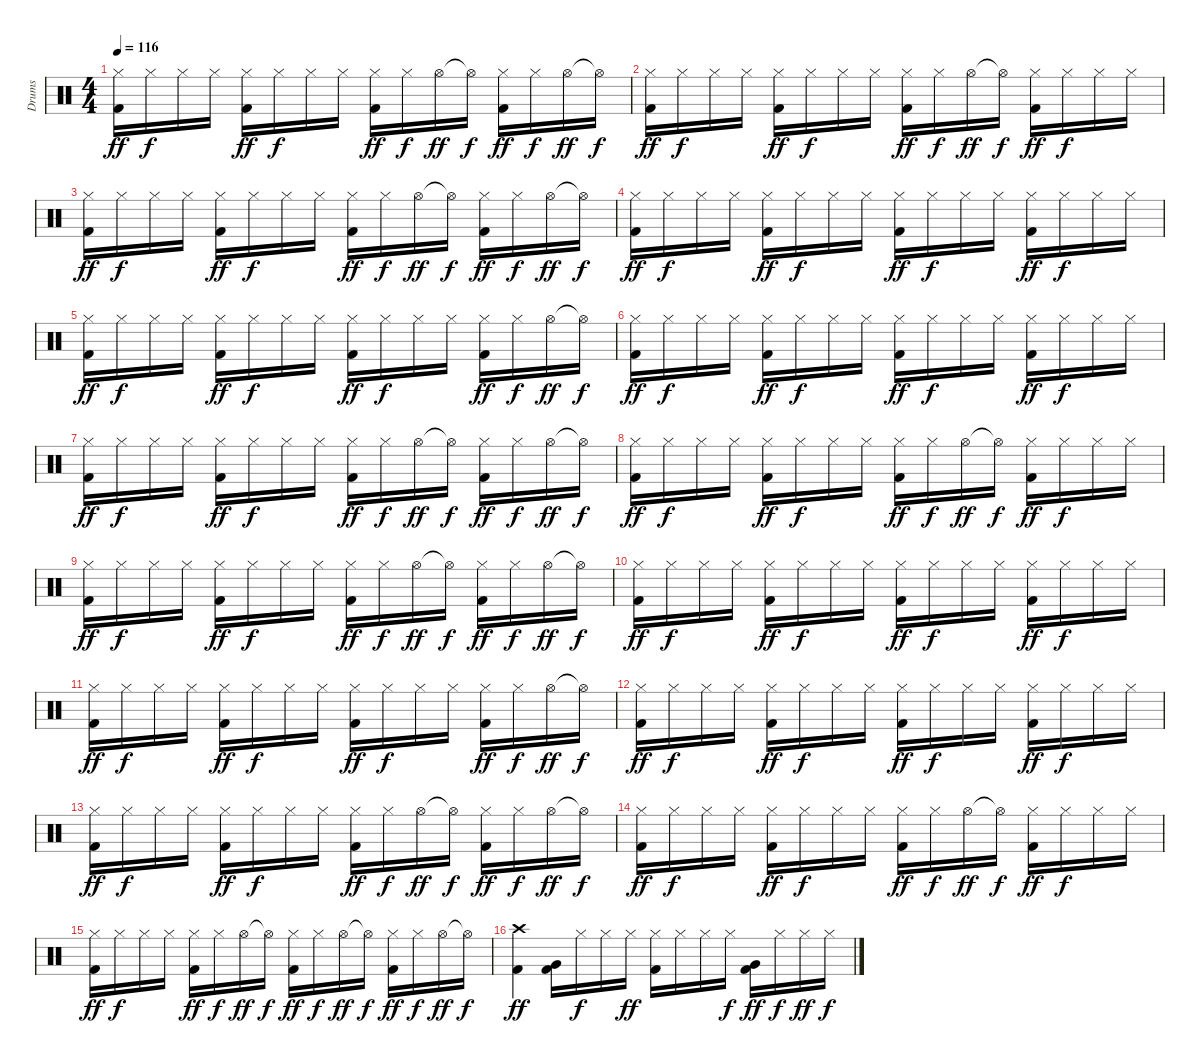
\track ("Drums" "Drums") {instrument percussion}
\staff {score}
\articulation defaults
\ts (4 4)
\tempo 116
\clef neutral
\ks c
("Hi-Hat (closed)" "Kick (hit) 2").16{dy ff} "Hi-Hat (closed)".16{dy f} "Hi-Hat (closed)".16 "Hi-Hat (closed)".16 ("Hi-Hat (closed)" "Kick (hit) 2").16{dy ff} "Hi-Hat (closed)".16{dy f} "Hi-Hat (closed)".16 "Hi-Hat (closed)".16 ("Hi-Hat (closed)" "Kick (hit) 2").16{dy ff} "Hi-Hat (closed)".16{dy f} "Hi-Hat (open)".16{dy ff} "Hi-Hat (open)"{t}.16{dy f} ("Hi-Hat (closed)" "Kick (hit) 2").16{dy ff} "Hi-Hat (closed)".16{dy f} "Hi-Hat (open)".16{dy ff} "Hi-Hat (open)"{t}.16{dy f} |
("Hi-Hat (closed)" "Kick (hit) 2").16{dy ff} "Hi-Hat (closed)".16{dy f} "Hi-Hat (closed)".16 "Hi-Hat (closed)".16 ("Hi-Hat (closed)" "Kick (hit) 2").16{dy ff} "Hi-Hat (closed)".16{dy f} "Hi-Hat (closed)".16 "Hi-Hat (closed)".16 ("Hi-Hat (closed)" "Kick (hit) 2").16{dy ff} "Hi-Hat (closed)".16{dy f} "Hi-Hat (open)".16{dy ff} "Hi-Hat (open)"{t}.16{dy f} ("Hi-Hat (closed)" "Kick (hit) 2").16{dy ff} "Hi-Hat (closed)".16{dy f} "Hi-Hat (closed)".16 "Hi-Hat (closed)".16 |
("Hi-Hat (closed)" "Kick (hit) 2").16{dy ff} "Hi-Hat (closed)".16{dy f} "Hi-Hat (closed)".16 "Hi-Hat (closed)".16 ("Hi-Hat (closed)" "Kick (hit) 2").16{dy ff} "Hi-Hat (closed)".16{dy f} "Hi-Hat (closed)".16 "Hi-Hat (closed)".16 ("Hi-Hat (closed)" "Kick (hit) 2").16{dy ff} "Hi-Hat (closed)".16{dy f} "Hi-Hat (open)".16{dy ff} "Hi-Hat (open)"{t}.16{dy f} ("Hi-Hat (closed)" "Kick (hit) 2").16{dy ff} "Hi-Hat (closed)".16{dy f} "Hi-Hat (open)".16{dy ff} "Hi-Hat (open)"{t}.16{dy f} |
("Hi-Hat (closed)" "Kick (hit) 2").16{dy ff} "Hi-Hat (closed)".16{dy f} "Hi-Hat (closed)".16 "Hi-Hat (closed)".16 ("Hi-Hat (closed)" "Kick (hit) 2").16{dy ff} "Hi-Hat (closed)".16{dy f} "Hi-Hat (closed)".16 "Hi-Hat (closed)".16 ("Hi-Hat (closed)" "Kick (hit) 2").16{dy ff} "Hi-Hat (closed)".16{dy f} "Hi-Hat (closed)".16 "Hi-Hat (closed)".16 ("Hi-Hat (closed)" "Kick (hit) 2").16{dy ff} "Hi-Hat (closed)".16{dy f} "Hi-Hat (closed)".16 "Hi-Hat (closed)".16 |
("Hi-Hat (closed)" "Kick (hit) 2").16{dy ff} "Hi-Hat (closed)".16{dy f} "Hi-Hat (closed)".16 "Hi-Hat (closed)".16 ("Hi-Hat (closed)" "Kick (hit) 2").16{dy ff} "Hi-Hat (closed)".16{dy f} "Hi-Hat (closed)".16 "Hi-Hat (closed)".16 ("Hi-Hat (closed)" "Kick (hit) 2").16{dy ff} "Hi-Hat (closed)".16{dy f} "Hi-Hat (closed)".16 "Hi-Hat (closed)".16 ("Hi-Hat (closed)" "Kick (hit) 2").16{dy ff} "Hi-Hat (closed)".16{dy f} "Hi-Hat (open)".16{dy ff} "Hi-Hat (open)"{t}.16{dy f} |
("Hi-Hat (closed)" "Kick (hit) 2").16{dy ff} "Hi-Hat (closed)".16{dy f} "Hi-Hat (closed)".16 "Hi-Hat (closed)".16 ("Hi-Hat (closed)" "Kick (hit) 2").16{dy ff} "Hi-Hat (closed)".16{dy f} "Hi-Hat (closed)".16 "Hi-Hat (closed)".16 ("Hi-Hat (closed)" "Kick (hit) 2").16{dy ff} "Hi-Hat (closed)".16{dy f} "Hi-Hat (closed)".16 "Hi-Hat (closed)".16 ("Hi-Hat (closed)" "Kick (hit) 2").16{dy ff} "Hi-Hat (closed)".16{dy f} "Hi-Hat (closed)".16 "Hi-Hat (closed)".16 |
("Hi-Hat (closed)" "Kick (hit) 2").16{dy ff} "Hi-Hat (closed)".16{dy f} "Hi-Hat (closed)".16 "Hi-Hat (closed)".16 ("Hi-Hat (closed)" "Kick (hit) 2").16{dy ff} "Hi-Hat (closed)".16{dy f} "Hi-Hat (closed)".16 "Hi-Hat (closed)".16 ("Hi-Hat (closed)" "Kick (hit) 2").16{dy ff} "Hi-Hat (closed)".16{dy f} "Hi-Hat (open)".16{dy ff} "Hi-Hat (open)"{t}.16{dy f} ("Hi-Hat (closed)" "Kick (hit) 2").16{dy ff} "Hi-Hat (closed)".16{dy f} "Hi-Hat (open)".16{dy ff} "Hi-Hat (open)"{t}.16{dy f} |
("Hi-Hat (closed)" "Kick (hit) 2").16{dy ff} "Hi-Hat (closed)".16{dy f} "Hi-Hat (closed)".16 "Hi-Hat (closed)".16 ("Hi-Hat (closed)" "Kick (hit) 2").16{dy ff} "Hi-Hat (closed)".16{dy f} "Hi-Hat (closed)".16 "Hi-Hat (closed)".16 ("Hi-Hat (closed)" "Kick (hit) 2").16{dy ff} "Hi-Hat (closed)".16{dy f} "Hi-Hat (open)".16{dy ff} "Hi-Hat (open)"{t}.16{dy f} ("Hi-Hat (closed)" "Kick (hit) 2").16{dy ff} "Hi-Hat (closed)".16{dy f} "Hi-Hat (closed)".16 "Hi-Hat (closed)".16 |
("Hi-Hat (closed)" "Kick (hit) 2").16{dy ff} "Hi-Hat (closed)".16{dy f} "Hi-Hat (closed)".16 "Hi-Hat (closed)".16 ("Hi-Hat (closed)" "Kick (hit) 2").16{dy ff} "Hi-Hat (closed)".16{dy f} "Hi-Hat (closed)".16 "Hi-Hat (closed)".16 ("Hi-Hat (closed)" "Kick (hit) 2").16{dy ff} "Hi-Hat (closed)".16{dy f} "Hi-Hat (open)".16{dy ff} "Hi-Hat (open)"{t}.16{dy f} ("Hi-Hat (closed)" "Kick (hit) 2").16{dy ff} "Hi-Hat (closed)".16{dy f} "Hi-Hat (open)".16{dy ff} "Hi-Hat (open)"{t}.16{dy f} |
("Hi-Hat (closed)" "Kick (hit) 2").16{dy ff} "Hi-Hat (closed)".16{dy f} "Hi-Hat (closed)".16 "Hi-Hat (closed)".16 ("Hi-Hat (closed)" "Kick (hit) 2").16{dy ff} "Hi-Hat (closed)".16{dy f} "Hi-Hat (closed)".16 "Hi-Hat (closed)".16 ("Hi-Hat (closed)" "Kick (hit) 2").16{dy ff} "Hi-Hat (closed)".16{dy f} "Hi-Hat (closed)".16 "Hi-Hat (closed)".16 ("Hi-Hat (closed)" "Kick (hit) 2").16{dy ff} "Hi-Hat (closed)".16{dy f} "Hi-Hat (closed)".16 "Hi-Hat (closed)".16 |
("Hi-Hat (closed)" "Kick (hit) 2").16{dy ff} "Hi-Hat (closed)".16{dy f} "Hi-Hat (closed)".16 "Hi-Hat (closed)".16 ("Hi-Hat (closed)" "Kick (hit) 2").16{dy ff} "Hi-Hat (closed)".16{dy f} "Hi-Hat (closed)".16 "Hi-Hat (closed)".16 ("Hi-Hat (closed)" "Kick (hit) 2").16{dy ff} "Hi-Hat (closed)".16{dy f} "Hi-Hat (closed)".16 "Hi-Hat (closed)".16 ("Hi-Hat (closed)" "Kick (hit) 2").16{dy ff} "Hi-Hat (closed)".16{dy f} "Hi-Hat (open)".16{dy ff} "Hi-Hat (open)"{t}.16{dy f} |
("Hi-Hat (closed)" "Kick (hit) 2").16{dy ff} "Hi-Hat (closed)".16{dy f} "Hi-Hat (closed)".16 "Hi-Hat (closed)".16 ("Hi-Hat (closed)" "Kick (hit) 2").16{dy ff} "Hi-Hat (closed)".16{dy f} "Hi-Hat (closed)".16 "Hi-Hat (closed)".16 ("Hi-Hat (closed)" "Kick (hit) 2").16{dy ff} "Hi-Hat (closed)".16{dy f} "Hi-Hat (closed)".16 "Hi-Hat (closed)".16 ("Hi-Hat (closed)" "Kick (hit) 2").16{dy ff} "Hi-Hat (closed)".16{dy f} "Hi-Hat (closed)".16 "Hi-Hat (closed)".16 |
("Hi-Hat (closed)" "Kick (hit) 2").16{dy ff} "Hi-Hat (closed)".16{dy f} "Hi-Hat (closed)".16 "Hi-Hat (closed)".16 ("Hi-Hat (closed)" "Kick (hit) 2").16{dy ff} "Hi-Hat (closed)".16{dy f} "Hi-Hat (closed)".16 "Hi-Hat (closed)".16 ("Hi-Hat (closed)" "Kick (hit) 2").16{dy ff} "Hi-Hat (closed)".16{dy f} "Hi-Hat (open)".16{dy ff} "Hi-Hat (open)"{t}.16{dy f} ("Hi-Hat (closed)" "Kick (hit) 2").16{dy ff} "Hi-Hat (closed)".16{dy f} "Hi-Hat (open)".16{dy ff} "Hi-Hat (open)"{t}.16{dy f} |
("Hi-Hat (closed)" "Kick (hit) 2").16{dy ff} "Hi-Hat (closed)".16{dy f} "Hi-Hat (closed)".16 "Hi-Hat (closed)".16 ("Hi-Hat (closed)" "Kick (hit) 2").16{dy ff} "Hi-Hat (closed)".16{dy f} "Hi-Hat (closed)".16 "Hi-Hat (closed)".16 ("Hi-Hat (closed)" "Kick (hit) 2").16{dy ff} "Hi-Hat (closed)".16{dy f} "Hi-Hat (open)".16{dy ff} "Hi-Hat (open)"{t}.16{dy f} ("Hi-Hat (closed)" "Kick (hit) 2").16{dy ff} "Hi-Hat (closed)".16{dy f} "Hi-Hat (closed)".16 "Hi-Hat (closed)".16 |
("Hi-Hat (closed)" "Kick (hit) 2").16{dy ff} "Hi-Hat (closed)".16{dy f} "Hi-Hat (closed)".16 "Hi-Hat (closed)".16 ("Hi-Hat (closed)" "Kick (hit) 2").16{dy ff} "Hi-Hat (closed)".16{dy f} "Hi-Hat (open)".16{dy ff} "Hi-Hat (open)"{t}.16{dy f} ("Hi-Hat (closed)" "Kick (hit) 2").16{dy ff} "Hi-Hat (closed)".16{dy f} "Hi-Hat (open)".16{dy ff} "Hi-Hat (open)"{t}.16{dy f} ("Hi-Hat (closed)" "Kick (hit) 2").16{dy ff} "Hi-Hat (closed)".16{dy f} "Hi-Hat (open)".16{dy ff} "Hi-Hat (open)"{t}.16{dy f} |
("Crash high (hit)" "Kick (hit) 2").4{dy ff} ("Very Low Tom (hit)" "Kick (hit) 2").16 "Hi-Hat (closed)".16{dy f} "Hi-Hat (closed)".16 "Hi-Hat (closed)".16{dy ff} ("Hi-Hat (closed)" "Kick (hit) 2").16 "Hi-Hat (closed)".16 "Hi-Hat (closed)".16 "Hi-Hat (closed)".16{dy f} ("Very Low Tom (hit)" "Kick (hit) 2").16{dy ff} "Hi-Hat (closed)".16{dy f} "Hi-Hat (closed)".16{dy ff} "Hi-Hat (closed)".16{dy f}
